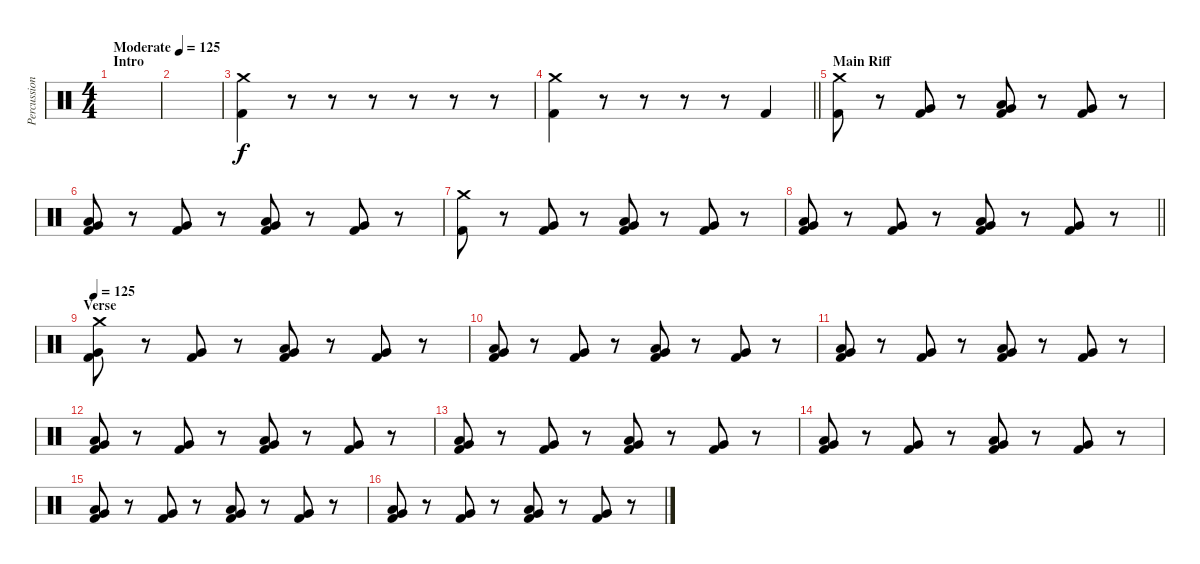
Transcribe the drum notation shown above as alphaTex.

\track ("Percussion" "Percussion") {instrument percussion}
\staff {score}
\articulation defaults
\ts (4 4)
\section ("" "Intro")
\tempo (125 "Moderate")
\clef neutral
\ks c
|
|
("Crash medium (hit)" "Kick (hit) 2").4 r.8 r.8 r.8 r.8 r.8 r.8 |
\barLineRight lightlight
("Crash medium (hit)" "Kick (hit) 2").4 r.8 r.8 r.8 r.8 "Kick (hit) 2".4 |
\section ("" "Main Riff")
("Crash medium (hit)" "Kick (hit) 2").8 r.8 ("Very Low Tom (hit)" "Kick (hit) 2").8 r.8 ("Very Low Tom (hit)" "Low Floor Tom (hit)" "Kick (hit) 2").8 r.8 ("Very Low Tom (hit)" "Kick (hit) 2").8 r.8 |
("Very Low Tom (hit)" "Low Floor Tom (hit)" "Kick (hit) 2").8 r.8 ("Very Low Tom (hit)" "Kick (hit) 2").8 r.8 ("Very Low Tom (hit)" "Low Floor Tom (hit)" "Kick (hit) 2").8 r.8 ("Very Low Tom (hit)" "Kick (hit) 2").8 r.8 |
("Crash medium (hit)" "Kick (hit) 2").8 r.8 ("Very Low Tom (hit)" "Kick (hit) 2").8 r.8 ("Very Low Tom (hit)" "Low Floor Tom (hit)" "Kick (hit) 2").8 r.8 ("Very Low Tom (hit)" "Kick (hit) 2").8 r.8 |
\barLineRight lightlight
("Very Low Tom (hit)" "Low Floor Tom (hit)" "Kick (hit) 2").8 r.8 ("Very Low Tom (hit)" "Kick (hit) 2").8 r.8 ("Very Low Tom (hit)" "Low Floor Tom (hit)" "Kick (hit) 2").8 r.8 ("Very Low Tom (hit)" "Kick (hit) 2").8 r.8 |
\section ("" "Verse")
\tempo 125
("Crash medium (hit)" "Very Low Tom (hit)" "Kick (hit) 2").8 r.8 ("Very Low Tom (hit)" "Kick (hit) 2").8 r.8 ("Very Low Tom (hit)" "Low Floor Tom (hit)" "Kick (hit) 2").8 r.8 ("Very Low Tom (hit)" "Kick (hit) 2").8 r.8 |
("Very Low Tom (hit)" "Low Floor Tom (hit)" "Kick (hit) 2").8 r.8 ("Very Low Tom (hit)" "Kick (hit) 2").8 r.8 ("Very Low Tom (hit)" "Low Floor Tom (hit)" "Kick (hit) 2").8 r.8 ("Very Low Tom (hit)" "Kick (hit) 2").8 r.8 |
("Very Low Tom (hit)" "Low Floor Tom (hit)" "Kick (hit) 2").8 r.8 ("Very Low Tom (hit)" "Kick (hit) 2").8 r.8 ("Very Low Tom (hit)" "Low Floor Tom (hit)" "Kick (hit) 2").8 r.8 ("Very Low Tom (hit)" "Kick (hit) 2").8 r.8 |
("Very Low Tom (hit)" "Low Floor Tom (hit)" "Kick (hit) 2").8 r.8 ("Very Low Tom (hit)" "Kick (hit) 2").8 r.8 ("Very Low Tom (hit)" "Low Floor Tom (hit)" "Kick (hit) 2").8 r.8 ("Very Low Tom (hit)" "Kick (hit) 2").8 r.8 |
("Very Low Tom (hit)" "Low Floor Tom (hit)" "Kick (hit) 2").8 r.8 ("Very Low Tom (hit)" "Kick (hit) 2").8 r.8 ("Very Low Tom (hit)" "Low Floor Tom (hit)" "Kick (hit) 2").8 r.8 ("Very Low Tom (hit)" "Kick (hit) 2").8 r.8 |
("Very Low Tom (hit)" "Low Floor Tom (hit)" "Kick (hit) 2").8 r.8 ("Very Low Tom (hit)" "Kick (hit) 2").8 r.8 ("Very Low Tom (hit)" "Low Floor Tom (hit)" "Kick (hit) 2").8 r.8 ("Very Low Tom (hit)" "Kick (hit) 2").8 r.8 |
("Very Low Tom (hit)" "Low Floor Tom (hit)" "Kick (hit) 2").8 r.8 ("Very Low Tom (hit)" "Kick (hit) 2").8 r.8 ("Very Low Tom (hit)" "Low Floor Tom (hit)" "Kick (hit) 2").8 r.8 ("Very Low Tom (hit)" "Kick (hit) 2").8 r.8 |
("Very Low Tom (hit)" "Low Floor Tom (hit)" "Kick (hit) 2").8 r.8 ("Very Low Tom (hit)" "Kick (hit) 2").8 r.8 ("Very Low Tom (hit)" "Low Floor Tom (hit)" "Kick (hit) 2").8 r.8 ("Very Low Tom (hit)" "Kick (hit) 2").8 r.8
